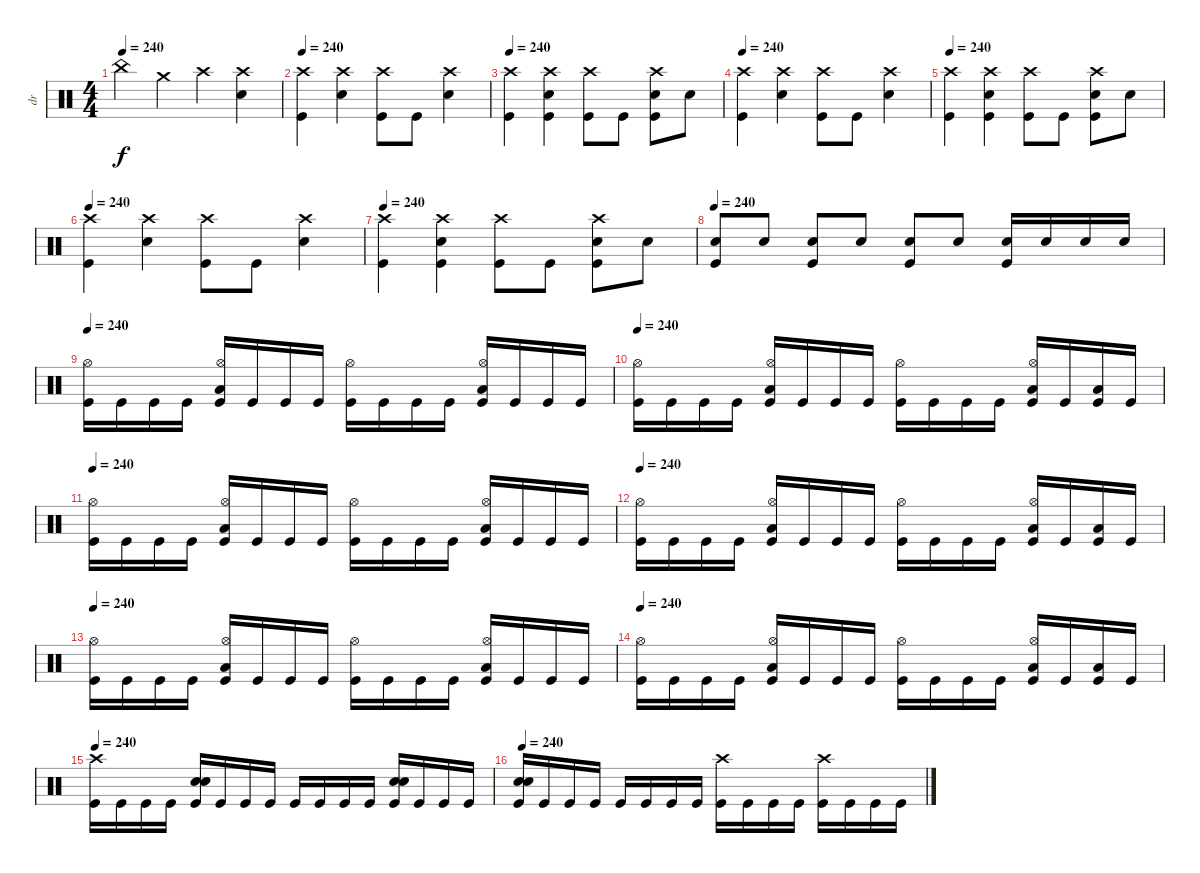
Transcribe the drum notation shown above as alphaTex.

\track ("dr" "dr") {instrument percussion}
\staff {score}
\articulation defaults
\ts (4 4)
\tempo 240
\clef neutral
\ks c "China (hit)".4{dy f} "Crash medium (hit)".4 "Crash high (hit)".4
("Crash high (hit)" "Snare (hit) 2").4 |
\tempo 240
("Crash high (hit)" "Kick (hit)").4 ("Crash high (hit)" "Snare (hit) 2").4 ("Crash high (hit)" "Kick (hit)").8 "Kick (hit)".8 ("Crash high (hit)" "Snare (hit) 2").4 |
\tempo 240
("Crash high (hit)" "Kick (hit)").4 ("Crash high (hit)" "Snare (hit) 2" "Kick (hit)").4 ("Crash high (hit)" "Kick (hit)").8 "Kick (hit)".8 ("Crash high (hit)" "Snare (hit) 2" "Kick (hit)").8 "Snare (hit) 2".8 |
\tempo 240
("Crash high (hit)" "Kick (hit)").4 ("Crash high (hit)" "Snare (hit) 2").4 ("Crash high (hit)" "Kick (hit)").8 "Kick (hit)".8 ("Crash high (hit)" "Snare (hit) 2").4 |
\tempo 240
("Crash high (hit)" "Kick (hit)").4 ("Crash high (hit)" "Snare (hit) 2" "Kick (hit)").4 ("Crash high (hit)" "Kick (hit)").8 "Kick (hit)".8 ("Crash high (hit)" "Snare (hit) 2" "Kick (hit)").8 "Snare (hit) 2".8 |
\tempo 240
("Crash high (hit)" "Kick (hit)").4 ("Crash high (hit)" "Snare (hit) 2").4 ("Crash high (hit)" "Kick (hit)").8 "Kick (hit)".8 ("Crash high (hit)" "Snare (hit) 2").4 |
\tempo 240
("Crash high (hit)" "Kick (hit)").4 ("Crash high (hit)" "Snare (hit) 2" "Kick (hit)").4 ("Crash high (hit)" "Kick (hit)").8 "Kick (hit)".8 ("Crash high (hit)" "Snare (hit) 2" "Kick (hit)").8 "Snare (hit) 2".8 |
\tempo 240
("Electric Snare (hit)" "Kick (hit)").8 "Electric Snare (hit)".8 ("Snare (hit) 2" "Kick (hit)").8 "Snare (hit) 2".8 ("Snare (hit) 2" "Kick (hit)").8 "Snare (hit) 2".8 ("Electric Snare (hit)" "Kick (hit)").16 "Electric Snare (hit)".16 "Electric Snare (hit)".16 "Electric Snare (hit)".16 |
\tempo 240
("Hi-Hat (open)" "Kick (hit)").16 "Kick (hit)".16 "Kick (hit)".16 "Kick (hit)".16 ("Hi-Hat (open)" "Low Floor Tom (hit)" "Kick (hit)").16 "Kick (hit)".16 "Kick (hit)".16 "Kick (hit)".16 ("Hi-Hat (open)" "Kick (hit)").16 "Kick (hit)".16 "Kick (hit)".16 "Kick (hit)".16 ("Hi-Hat (open)" "Low Floor Tom (hit)" "Kick (hit)").16 "Kick (hit)".16 "Kick (hit)".16 "Kick (hit)".16 |
\tempo 240
("Hi-Hat (open)" "Kick (hit)").16 "Kick (hit)".16 "Kick (hit)".16 "Kick (hit)".16 ("Hi-Hat (open)" "Low Floor Tom (hit)" "Kick (hit)").16 "Kick (hit)".16 "Kick (hit)".16 "Kick (hit)".16 ("Hi-Hat (open)" "Kick (hit)").16 "Kick (hit)".16 "Kick (hit)".16 "Kick (hit)".16 ("Hi-Hat (open)" "Low Floor Tom (hit)" "Kick (hit)").16 "Kick (hit)".16 ("Low Floor Tom (hit)" "Kick (hit)").16 "Kick (hit)".16 |
\tempo 240
("Hi-Hat (open)" "Kick (hit)").16 "Kick (hit)".16 "Kick (hit)".16 "Kick (hit)".16 ("Hi-Hat (open)" "Low Floor Tom (hit)" "Kick (hit)").16 "Kick (hit)".16 "Kick (hit)".16 "Kick (hit)".16 ("Hi-Hat (open)" "Kick (hit)").16 "Kick (hit)".16 "Kick (hit)".16 "Kick (hit)".16 ("Hi-Hat (open)" "Low Floor Tom (hit)" "Kick (hit)").16 "Kick (hit)".16 "Kick (hit)".16 "Kick (hit)".16 |
\tempo 240
("Hi-Hat (open)" "Kick (hit)").16 "Kick (hit)".16 "Kick (hit)".16 "Kick (hit)".16 ("Hi-Hat (open)" "Low Floor Tom (hit)" "Kick (hit)").16 "Kick (hit)".16 "Kick (hit)".16 "Kick (hit)".16 ("Hi-Hat (open)" "Kick (hit)").16 "Kick (hit)".16 "Kick (hit)".16 "Kick (hit)".16 ("Hi-Hat (open)" "Low Floor Tom (hit)" "Kick (hit)").16 "Kick (hit)".16 ("Low Floor Tom (hit)" "Kick (hit)").16 "Kick (hit)".16 |
\tempo 240
("Hi-Hat (open)" "Kick (hit)").16 "Kick (hit)".16 "Kick (hit)".16 "Kick (hit)".16 ("Hi-Hat (open)" "Low Floor Tom (hit)" "Kick (hit)").16 "Kick (hit)".16 "Kick (hit)".16 "Kick (hit)".16 ("Hi-Hat (open)" "Kick (hit)").16 "Kick (hit)".16 "Kick (hit)".16 "Kick (hit)".16 ("Hi-Hat (open)" "Low Floor Tom (hit)" "Kick (hit)").16 "Kick (hit)".16 "Kick (hit)".16 "Kick (hit)".16 |
\tempo 240
("Hi-Hat (open)" "Kick (hit)").16 "Kick (hit)".16 "Kick (hit)".16 "Kick (hit)".16 ("Hi-Hat (open)" "Low Floor Tom (hit)" "Kick (hit)").16 "Kick (hit)".16 "Kick (hit)".16 "Kick (hit)".16 ("Hi-Hat (open)" "Kick (hit)").16 "Kick (hit)".16 "Kick (hit)".16 "Kick (hit)".16 ("Hi-Hat (open)" "Low Floor Tom (hit)" "Kick (hit)").16 "Kick (hit)".16 ("Low Floor Tom (hit)" "Kick (hit)").16 "Kick (hit)".16 |
\tempo 240
("Crash high (hit)" "Kick (hit)").16 "Kick (hit)".16 "Kick (hit)".16 "Kick (hit)".16 ("Electric Snare (hit)" "Snare (hit) 2" "Kick (hit)").16 "Kick (hit)".16 "Kick (hit)".16 "Kick (hit)".16 "Kick (hit)".16 "Kick (hit)".16 "Kick (hit)".16 "Kick (hit)".16 ("Electric Snare (hit)" "Snare (hit) 2" "Kick (hit)").16 "Kick (hit)".16 "Kick (hit)".16 "Kick (hit)".16 |
\tempo 240
("Electric Snare (hit)" "Snare (hit) 2" "Kick (hit)").16 "Kick (hit)".16 "Kick (hit)".16 "Kick (hit)".16 "Kick (hit)".16 "Kick (hit)".16 "Kick (hit)".16 "Kick (hit)".16 ("Crash high (hit)" "Kick (hit)").16 "Kick (hit)".16 "Kick (hit)".16 "Kick (hit)".16 ("Crash high (hit)" "Kick (hit)").16 "Kick (hit)".16 "Kick (hit)".16 "Kick (hit)".16
